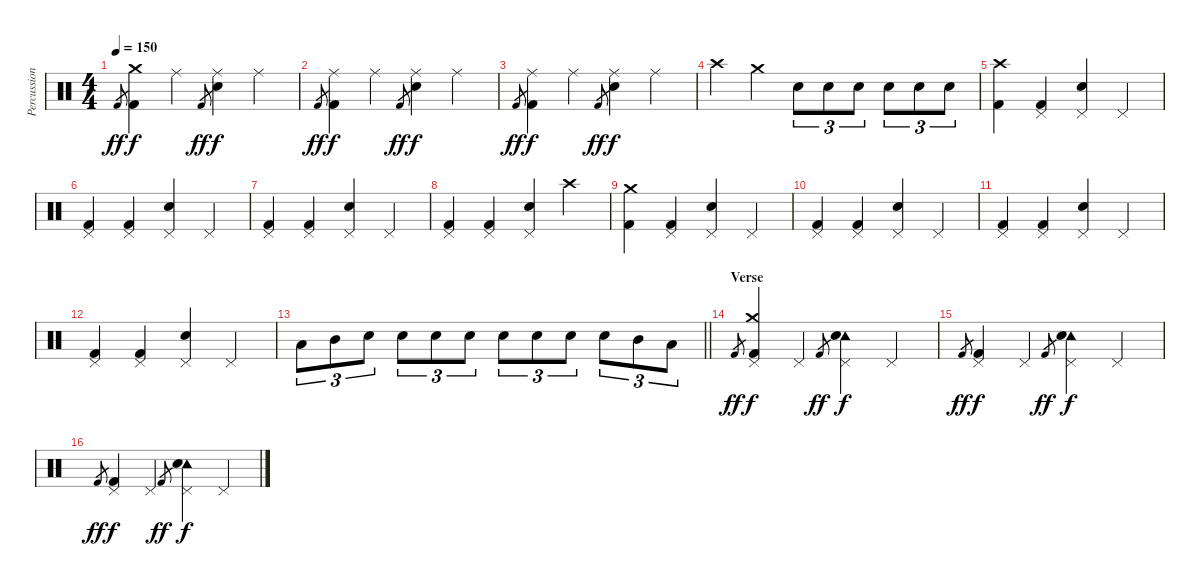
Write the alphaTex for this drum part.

\track ("Percussion" "Percussion") {instrument percussion}
\staff {score}
\articulation defaults
\ts (4 4)
\tempo 150
\clef neutral
\ks c "Kick (hit) 2".8{gr dy ff}
("Crash medium (hit)" "Kick (hit) 2").4{dy f} "Ride (middle)".4 "Kick (hit) 2".8{gr dy ff} ("Ride (middle)" "Snare (hit) 2").4{dy f} "Ride (middle)".4 |
"Kick (hit) 2".8{gr dy ff} ("Ride (middle)" "Kick (hit) 2").4{dy f} "Ride (middle)".4 "Kick (hit) 2".8{gr dy ff} ("Ride (middle)" "Snare (hit) 2").4{dy f} "Ride (middle)".4 |
"Kick (hit) 2".8{gr dy ff} ("Ride (middle)" "Kick (hit) 2").4{dy f} "Ride (middle)".4 "Kick (hit) 2".8{gr dy ff} ("Ride (middle)" "Snare (hit) 2").4{dy f} "Ride (middle)".4 |
"Crash high (hit)".4 "Crash medium (hit)".4 "Snare (hit) 2".8{tu (3 2)} "Snare (hit) 2".8{tu (3 2)} "Snare (hit) 2".8{tu (3 2)} "Snare (hit) 2".8{tu (3 2)} "Snare (hit) 2".8{tu (3 2)} "Snare (hit) 2".8{tu (3 2)} |
("Crash high (hit)" "Kick (hit) 2").4 ("Pedal Hi-Hat (hit)" "Kick (hit) 2").4 ("Pedal Hi-Hat (hit)" "Snare (hit) 2").4 "Pedal Hi-Hat (hit)".4 |
("Pedal Hi-Hat (hit)" "Kick (hit) 2").4 ("Pedal Hi-Hat (hit)" "Kick (hit) 2").4 ("Pedal Hi-Hat (hit)" "Snare (hit) 2").4 "Pedal Hi-Hat (hit)".4 |
("Pedal Hi-Hat (hit)" "Kick (hit) 2").4 ("Pedal Hi-Hat (hit)" "Kick (hit) 2").4 ("Pedal Hi-Hat (hit)" "Snare (hit) 2").4 "Pedal Hi-Hat (hit)".4 |
("Pedal Hi-Hat (hit)" "Kick (hit) 2").4 ("Pedal Hi-Hat (hit)" "Kick (hit) 2").4 ("Pedal Hi-Hat (hit)" "Snare (hit) 2").4 "Crash high (hit)".4 |
("Crash medium (hit)" "Kick (hit) 2").4 ("Pedal Hi-Hat (hit)" "Kick (hit) 2").4 ("Pedal Hi-Hat (hit)" "Snare (hit) 2").4 "Pedal Hi-Hat (hit)".4 |
("Pedal Hi-Hat (hit)" "Kick (hit) 2").4 ("Pedal Hi-Hat (hit)" "Kick (hit) 2").4 ("Pedal Hi-Hat (hit)" "Snare (hit) 2").4 "Pedal Hi-Hat (hit)".4 |
("Pedal Hi-Hat (hit)" "Kick (hit) 2").4 ("Pedal Hi-Hat (hit)" "Kick (hit) 2").4 ("Pedal Hi-Hat (hit)" "Snare (hit) 2").4 "Pedal Hi-Hat (hit)".4 |
("Pedal Hi-Hat (hit)" "Kick (hit) 2").4 ("Pedal Hi-Hat (hit)" "Kick (hit) 2").4 ("Pedal Hi-Hat (hit)" "Snare (hit) 2").4 "Pedal Hi-Hat (hit)".4 |
\barLineRight lightlight "Low Tom (hit)".8{tu (3 2)} "Mid Tom (hit)".8{tu (3 2)} "Snare (hit) 2".8{tu (3 2)} "Snare (hit) 2".8{tu (3 2)} "Snare (hit) 2".8{tu (3 2)} "Snare (hit) 2".8{tu (3 2)} "Snare (hit) 2".8{tu (3 2)} "Snare (hit) 2".8{tu (3 2)} "Snare (hit) 2".8{tu (3 2)} "Snare (hit) 2".8{tu (3 2)} "Mid Tom (hit)".8{tu (3 2)} "Low Tom (hit)".8{tu (3 2)}
|
\section ("" "Verse")
"Kick (hit) 2".8{gr dy ff} ("Crash medium (hit)" "Kick (hit) 2" "Pedal Hi-Hat (hit)").4{dy f} "Pedal Hi-Hat (hit)".4 "Kick (hit) 2".8{gr dy ff} ("Tambourine (hit)" "Snare (hit) 2" "Pedal Hi-Hat (hit)").4{dy f} "Pedal Hi-Hat (hit)".4 |
"Kick (hit) 2".8{gr dy ff} ("Kick (hit) 2" "Pedal Hi-Hat (hit)").4{dy f} "Pedal Hi-Hat (hit)".4 "Kick (hit) 2".8{gr dy ff} ("Tambourine (hit)" "Snare (hit) 2" "Pedal Hi-Hat (hit)").4{dy f} "Pedal Hi-Hat (hit)".4 |
"Kick (hit) 2".8{gr dy ff} ("Kick (hit) 2" "Pedal Hi-Hat (hit)").4{dy f} "Pedal Hi-Hat (hit)".4 "Kick (hit) 2".8{gr dy ff} ("Tambourine (hit)" "Snare (hit) 2" "Pedal Hi-Hat (hit)").4{dy f} "Pedal Hi-Hat (hit)".4
